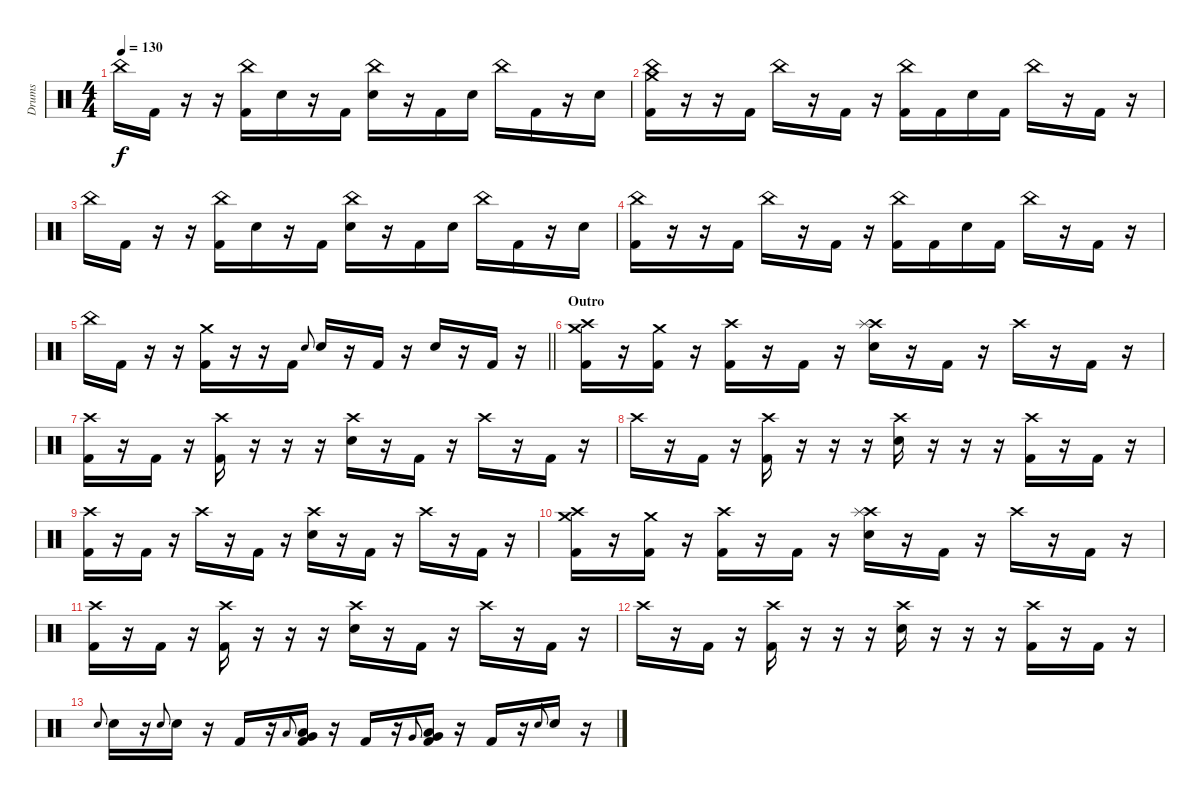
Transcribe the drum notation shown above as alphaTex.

\track ("Drums" "Drums") {instrument percussion}
\staff {score}
\articulation defaults
\ts (4 4)
\tempo 130
\clef neutral
\ks c "China (hit)".16{dy f} "Kick (hit) 2".16
r.16 r.16 ("China (hit)" "Kick (hit) 2").16 "Snare (hit) 2".16 r.16 "Kick (hit) 2".16 ("China (hit)" "Snare (hit) 2").16 r.16 "Kick (hit) 2".16 "Snare (hit) 2".16 "China (hit)".16 "Kick (hit) 2".16 r.16 "Snare (hit) 2".16 |
("China (hit)" "Crash medium (hit)" "Kick (hit) 2").16 r.16 r.16 "Kick (hit) 2".16 "China (hit)".16 r.16 "Kick (hit) 2".16 r.16 ("China (hit)" "Kick (hit) 2").16 "Kick (hit) 2".16 "Snare (hit) 2".16 "Kick (hit) 2".16 "China (hit)".16 r.16 "Kick (hit) 2".16 r.16 |
"China (hit)".16 "Kick (hit) 2".16 r.16 r.16 ("China (hit)" "Kick (hit) 2").16 "Snare (hit) 2".16 r.16 "Kick (hit) 2".16 ("China (hit)" "Snare (hit) 2").16 r.16 "Kick (hit) 2".16 "Snare (hit) 2".16 "China (hit)".16 "Kick (hit) 2".16 r.16 "Snare (hit) 2".16 |
("China (hit)" "Kick (hit) 2").16 r.16 r.16 "Kick (hit) 2".16 "China (hit)".16 r.16 "Kick (hit) 2".16 r.16 ("China (hit)" "Kick (hit) 2").16 "Kick (hit) 2".16 "Snare (hit) 2".16 "Kick (hit) 2".16 "China (hit)".16 r.16 "Kick (hit) 2".16 r.16 |
\barLineRight lightlight "China (hit)".16 "Kick (hit) 2".16
r.16 r.16 ("Crash medium (hit)" "Kick (hit) 2").16 r.16 r.16 "Kick (hit) 2".16 "Snare (hit) 2".8{gr onbeat} "Snare (hit) 2".16 r.16 "Kick (hit) 2".16 r.16 "Snare (hit) 2".16 r.16 "Kick (hit) 2".16 r.16 |
\section ("" "Outro")
("Crash high (hit)" "Crash medium (hit)" "Kick (hit) 2").16 r.16 ("Crash medium (hit)" "Kick (hit) 2").16 r.16 ("Crash high (hit)" "Kick (hit) 2").16 r.16 "Kick (hit) 2".16 r.16 ("Crash high (hit)" "Splash (hit)" "Snare (hit) 2").16 r.16 "Kick (hit) 2".16 r.16 "Crash high (hit)".16 r.16 "Kick (hit) 2".16 r.16 |
("Crash high (hit)" "Kick (hit) 2").16 r.16 "Kick (hit) 2".16 r.16 ("Crash high (hit)" "Kick (hit) 2").16 r.16 r.16 r.16 ("Crash high (hit)" "Snare (hit) 2").16 r.16 "Kick (hit) 2".16 r.16 "Crash high (hit)".16 r.16 "Kick (hit) 2".16 r.16 |
"Crash high (hit)".16 r.16 "Kick (hit) 2".16 r.16 ("Crash high (hit)" "Kick (hit) 2").16 r.16 r.16 r.16 ("Crash high (hit)" "Snare (hit) 2").16 r.16 r.16 r.16 ("Crash high (hit)" "Kick (hit) 2").16 r.16 "Kick (hit) 2".16 r.16 |
("Crash high (hit)" "Kick (hit) 2").16 r.16 "Kick (hit) 2".16 r.16 "Crash high (hit)".16 r.16 "Kick (hit) 2".16 r.16 ("Crash high (hit)" "Snare (hit) 2").16 r.16 "Kick (hit) 2".16 r.16 "Crash high (hit)".16 r.16 "Kick (hit) 2".16 r.16 |
("Crash high (hit)" "Crash medium (hit)" "Kick (hit) 2").16 r.16 ("Crash medium (hit)" "Kick (hit) 2").16 r.16 ("Crash high (hit)" "Kick (hit) 2").16 r.16 "Kick (hit) 2".16 r.16 ("Crash high (hit)" "Splash (hit)" "Snare (hit) 2").16 r.16 "Kick (hit) 2".16 r.16 "Crash high (hit)".16 r.16 "Kick (hit) 2".16 r.16 |
("Crash high (hit)" "Kick (hit) 2").16 r.16 "Kick (hit) 2".16 r.16 ("Crash high (hit)" "Kick (hit) 2").16 r.16 r.16 r.16 ("Crash high (hit)" "Snare (hit) 2").16 r.16 "Kick (hit) 2".16 r.16 "Crash high (hit)".16 r.16 "Kick (hit) 2".16 r.16 |
"Crash high (hit)".16 r.16 "Kick (hit) 2".16 r.16 ("Crash high (hit)" "Kick (hit) 2").16 r.16 r.16 r.16 ("Crash high (hit)" "Snare (hit) 2").16 r.16 r.16 r.16 ("Crash high (hit)" "Kick (hit) 2").16 r.16 "Kick (hit) 2".16 r.16 |
"Snare (hit) 2".8{gr onbeat} "Snare (hit) 2".16 r.16 "Snare (hit) 2".8{gr onbeat} "Snare (hit) 2".16 r.16 "Kick (hit) 2".16 r.16 "Low Tom (hit)".8{gr onbeat} ("Low Tom (hit)" "Very Low Tom (hit)" "Kick (hit) 2").16 r.16 "Kick (hit) 2".16 r.16 "Very Low Tom (hit)".8{gr onbeat} ("Very Low Tom (hit)" "Low Floor Tom (hit)" "Kick (hit) 2").16 r.16 "Kick (hit) 2".16 r.16 "Snare (hit) 2".8{gr onbeat} "Snare (hit) 2".16 r.16
